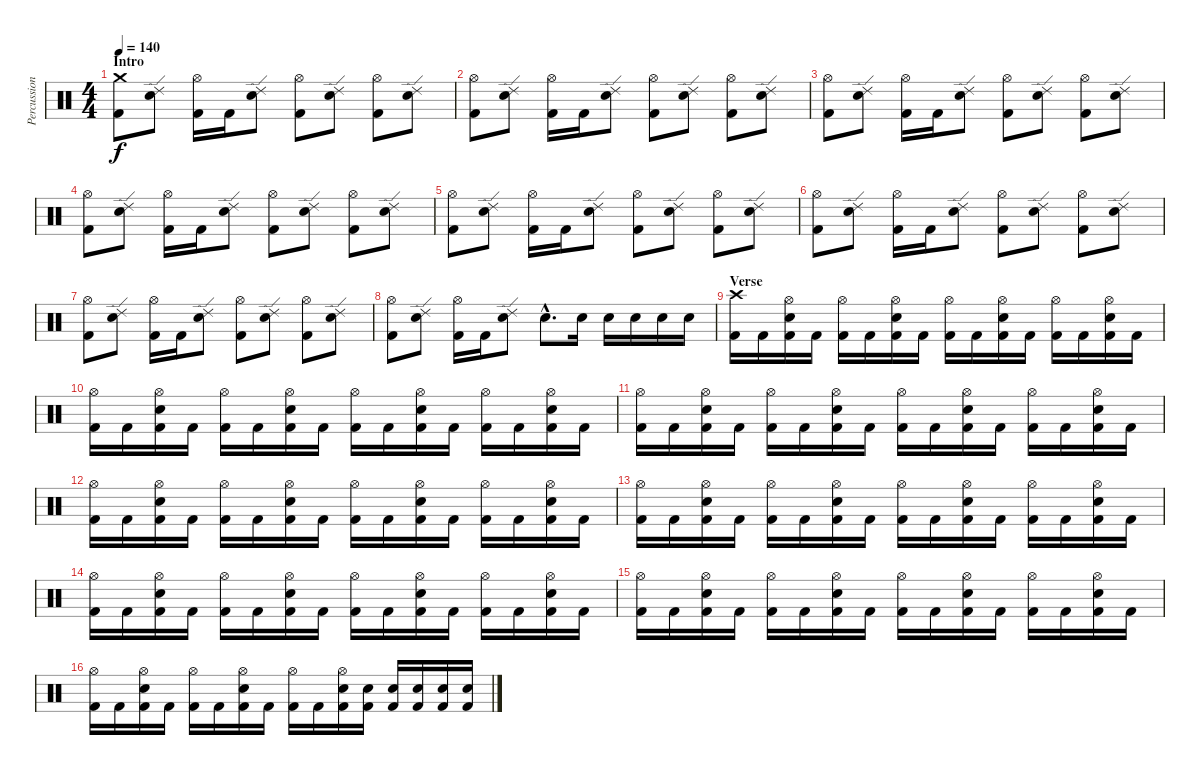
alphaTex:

\track ("Percussion" "Percussion") {instrument percussion}
\staff {score}
\articulation defaults
\ts (4 4)
\section ("" "Intro")
\tempo 140
\clef neutral
\ks c
("Crash medium (hit)" "Kick (hit) 2").8{dy f} ("Ride (edge) 2" "Electric Snare (hit)").8 ("Hi-Hat (open)" "Kick (hit) 2").16 "Kick (hit) 2".16 ("Ride (edge) 2" "Electric Snare (hit)").8 ("Hi-Hat (open)" "Kick (hit) 2").8 ("Ride (edge) 2" "Electric Snare (hit)").8 ("Hi-Hat (open)" "Kick (hit) 2").8 ("Ride (edge) 2" "Electric Snare (hit)").8 |
("Hi-Hat (open)" "Kick (hit) 2").8 ("Ride (edge) 2" "Electric Snare (hit)").8 ("Hi-Hat (open)" "Kick (hit) 2").16 "Kick (hit) 2".16 ("Ride (edge) 2" "Electric Snare (hit)").8 ("Hi-Hat (open)" "Kick (hit) 2").8 ("Ride (edge) 2" "Electric Snare (hit)").8 ("Hi-Hat (open)" "Kick (hit) 2").8 ("Ride (edge) 2" "Electric Snare (hit)").8 |
("Hi-Hat (open)" "Kick (hit) 2").8 ("Ride (edge) 2" "Electric Snare (hit)").8 ("Hi-Hat (open)" "Kick (hit) 2").16 "Kick (hit) 2".16 ("Ride (edge) 2" "Electric Snare (hit)").8 ("Hi-Hat (open)" "Kick (hit) 2").8 ("Ride (edge) 2" "Electric Snare (hit)").8 ("Hi-Hat (open)" "Kick (hit) 2").8 ("Ride (edge) 2" "Electric Snare (hit)").8 |
("Hi-Hat (open)" "Kick (hit) 2").8 ("Ride (edge) 2" "Electric Snare (hit)").8 ("Hi-Hat (open)" "Kick (hit) 2").16 "Kick (hit) 2".16 ("Ride (edge) 2" "Electric Snare (hit)").8 ("Hi-Hat (open)" "Kick (hit) 2").8 ("Ride (edge) 2" "Electric Snare (hit)").8 ("Hi-Hat (open)" "Kick (hit) 2").8 ("Ride (edge) 2" "Electric Snare (hit)").8 |
("Hi-Hat (open)" "Kick (hit) 2").8 ("Ride (edge) 2" "Electric Snare (hit)").8 ("Hi-Hat (open)" "Kick (hit) 2").16 "Kick (hit) 2".16 ("Ride (edge) 2" "Electric Snare (hit)").8 ("Hi-Hat (open)" "Kick (hit) 2").8 ("Ride (edge) 2" "Electric Snare (hit)").8 ("Hi-Hat (open)" "Kick (hit) 2").8 ("Ride (edge) 2" "Electric Snare (hit)").8 |
("Hi-Hat (open)" "Kick (hit) 2").8 ("Ride (edge) 2" "Electric Snare (hit)").8 ("Hi-Hat (open)" "Kick (hit) 2").16 "Kick (hit) 2".16 ("Ride (edge) 2" "Electric Snare (hit)").8 ("Hi-Hat (open)" "Kick (hit) 2").8 ("Ride (edge) 2" "Electric Snare (hit)").8 ("Hi-Hat (open)" "Kick (hit) 2").8 ("Ride (edge) 2" "Electric Snare (hit)").8 |
("Hi-Hat (open)" "Kick (hit) 2").8 ("Ride (edge) 2" "Electric Snare (hit)").8 ("Hi-Hat (open)" "Kick (hit) 2").16 "Kick (hit) 2".16 ("Ride (edge) 2" "Electric Snare (hit)").8 ("Hi-Hat (open)" "Kick (hit) 2").8 ("Ride (edge) 2" "Electric Snare (hit)").8 ("Hi-Hat (open)" "Kick (hit) 2").8 ("Ride (edge) 2" "Electric Snare (hit)").8 |
("Hi-Hat (open)" "Kick (hit) 2").8 ("Ride (edge) 2" "Electric Snare (hit)").8 ("Hi-Hat (open)" "Kick (hit) 2").16 "Kick (hit) 2".16 ("Ride (edge) 2" "Electric Snare (hit)").8 "Electric Snare (hit)"{hac}.8{d} "Electric Snare (hit)".16 "Electric Snare (hit)".16 "Electric Snare (hit)".16 "Electric Snare (hit)".16 "Electric Snare (hit)".16 |
\section ("" "Verse")
("Crash high (hit)" "Kick (hit) 2").16 "Kick (hit) 2".16 ("Hi-Hat (open)" "Electric Snare (hit)" "Kick (hit) 2").16 "Kick (hit) 2".16 ("Hi-Hat (open)" "Kick (hit) 2").16 "Kick (hit) 2".16 ("Hi-Hat (open)" "Electric Snare (hit)" "Kick (hit) 2").16 "Kick (hit) 2".16 ("Hi-Hat (open)" "Kick (hit) 2").16 "Kick (hit) 2".16 ("Hi-Hat (open)" "Electric Snare (hit)" "Kick (hit) 2").16 "Kick (hit) 2".16 ("Hi-Hat (open)" "Kick (hit) 2").16 "Kick (hit) 2".16 ("Hi-Hat (open)" "Electric Snare (hit)" "Kick (hit) 2").16 "Kick (hit) 2".16 |
("Hi-Hat (open)" "Kick (hit) 2").16 "Kick (hit) 2".16 ("Hi-Hat (open)" "Electric Snare (hit)" "Kick (hit) 2").16 "Kick (hit) 2".16 ("Hi-Hat (open)" "Kick (hit) 2").16 "Kick (hit) 2".16 ("Hi-Hat (open)" "Electric Snare (hit)" "Kick (hit) 2").16 "Kick (hit) 2".16 ("Hi-Hat (open)" "Kick (hit) 2").16 "Kick (hit) 2".16 ("Hi-Hat (open)" "Electric Snare (hit)" "Kick (hit) 2").16 "Kick (hit) 2".16 ("Hi-Hat (open)" "Kick (hit) 2").16 "Kick (hit) 2".16 ("Hi-Hat (open)" "Electric Snare (hit)" "Kick (hit) 2").16 "Kick (hit) 2".16 |
("Hi-Hat (open)" "Kick (hit) 2").16 "Kick (hit) 2".16 ("Hi-Hat (open)" "Electric Snare (hit)" "Kick (hit) 2").16 "Kick (hit) 2".16 ("Hi-Hat (open)" "Kick (hit) 2").16 "Kick (hit) 2".16 ("Hi-Hat (open)" "Electric Snare (hit)" "Kick (hit) 2").16 "Kick (hit) 2".16 ("Hi-Hat (open)" "Kick (hit) 2").16 "Kick (hit) 2".16 ("Hi-Hat (open)" "Electric Snare (hit)" "Kick (hit) 2").16 "Kick (hit) 2".16 ("Hi-Hat (open)" "Kick (hit) 2").16 "Kick (hit) 2".16 ("Hi-Hat (open)" "Electric Snare (hit)" "Kick (hit) 2").16 "Kick (hit) 2".16 |
("Hi-Hat (open)" "Kick (hit) 2").16 "Kick (hit) 2".16 ("Hi-Hat (open)" "Electric Snare (hit)" "Kick (hit) 2").16 "Kick (hit) 2".16 ("Hi-Hat (open)" "Kick (hit) 2").16 "Kick (hit) 2".16 ("Hi-Hat (open)" "Electric Snare (hit)" "Kick (hit) 2").16 "Kick (hit) 2".16 ("Hi-Hat (open)" "Kick (hit) 2").16 "Kick (hit) 2".16 ("Hi-Hat (open)" "Electric Snare (hit)" "Kick (hit) 2").16 "Kick (hit) 2".16 ("Hi-Hat (open)" "Kick (hit) 2").16 "Kick (hit) 2".16 ("Hi-Hat (open)" "Electric Snare (hit)" "Kick (hit) 2").16 "Kick (hit) 2".16 |
("Hi-Hat (open)" "Kick (hit) 2").16 "Kick (hit) 2".16 ("Hi-Hat (open)" "Electric Snare (hit)" "Kick (hit) 2").16 "Kick (hit) 2".16 ("Hi-Hat (open)" "Kick (hit) 2").16 "Kick (hit) 2".16 ("Hi-Hat (open)" "Electric Snare (hit)" "Kick (hit) 2").16 "Kick (hit) 2".16 ("Hi-Hat (open)" "Kick (hit) 2").16 "Kick (hit) 2".16 ("Hi-Hat (open)" "Electric Snare (hit)" "Kick (hit) 2").16 "Kick (hit) 2".16 ("Hi-Hat (open)" "Kick (hit) 2").16 "Kick (hit) 2".16 ("Hi-Hat (open)" "Electric Snare (hit)" "Kick (hit) 2").16 "Kick (hit) 2".16 |
("Hi-Hat (open)" "Kick (hit) 2").16 "Kick (hit) 2".16 ("Hi-Hat (open)" "Electric Snare (hit)" "Kick (hit) 2").16 "Kick (hit) 2".16 ("Hi-Hat (open)" "Kick (hit) 2").16 "Kick (hit) 2".16 ("Hi-Hat (open)" "Electric Snare (hit)" "Kick (hit) 2").16 "Kick (hit) 2".16 ("Hi-Hat (open)" "Kick (hit) 2").16 "Kick (hit) 2".16 ("Hi-Hat (open)" "Electric Snare (hit)" "Kick (hit) 2").16 "Kick (hit) 2".16 ("Hi-Hat (open)" "Kick (hit) 2").16 "Kick (hit) 2".16 ("Hi-Hat (open)" "Electric Snare (hit)" "Kick (hit) 2").16 "Kick (hit) 2".16 |
("Hi-Hat (open)" "Kick (hit) 2").16 "Kick (hit) 2".16 ("Hi-Hat (open)" "Electric Snare (hit)" "Kick (hit) 2").16 "Kick (hit) 2".16 ("Hi-Hat (open)" "Kick (hit) 2").16 "Kick (hit) 2".16 ("Hi-Hat (open)" "Electric Snare (hit)" "Kick (hit) 2").16 "Kick (hit) 2".16 ("Hi-Hat (open)" "Kick (hit) 2").16 "Kick (hit) 2".16 ("Hi-Hat (open)" "Electric Snare (hit)" "Kick (hit) 2").16 "Kick (hit) 2".16 ("Hi-Hat (open)" "Kick (hit) 2").16 "Kick (hit) 2".16 ("Hi-Hat (open)" "Electric Snare (hit)" "Kick (hit) 2").16 "Kick (hit) 2".16 |
("Hi-Hat (open)" "Kick (hit) 2").16 "Kick (hit) 2".16 ("Hi-Hat (open)" "Electric Snare (hit)" "Kick (hit) 2").16 "Kick (hit) 2".16 ("Hi-Hat (open)" "Kick (hit) 2").16 "Kick (hit) 2".16 ("Hi-Hat (open)" "Electric Snare (hit)" "Kick (hit) 2").16 "Kick (hit) 2".16 ("Hi-Hat (open)" "Kick (hit) 2").16 "Kick (hit) 2".16 ("Hi-Hat (open)" "Electric Snare (hit)" "Kick (hit) 2").16 ("Electric Snare (hit)" "Kick (hit) 2").16 ("Electric Snare (hit)" "Kick (hit) 2").16 ("Electric Snare (hit)" "Kick (hit) 2").16 ("Electric Snare (hit)" "Kick (hit) 2").16 ("Electric Snare (hit)" "Kick (hit) 2").16
